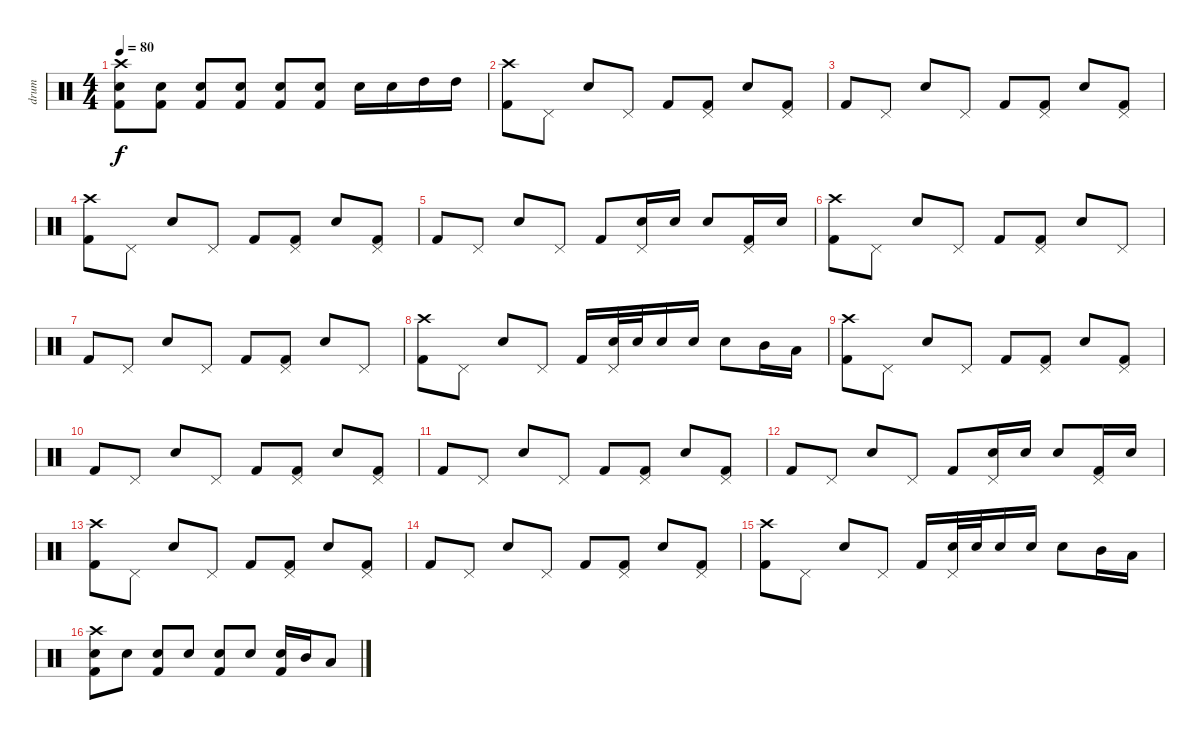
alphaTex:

\track ("drum" "drum") {instrument percussion}
\staff {score}
\articulation defaults
\ts (4 4)
\tempo 80
\clef neutral
\ks c
("Crash high (hit)" "Snare (hit)" "Kick (hit) 2").8{dy f} ("Snare (hit)" "Kick (hit) 2").8 ("Snare (hit)" "Kick (hit) 2").8 ("Snare (hit)" "Kick (hit) 2").8 ("Snare (hit)" "Kick (hit) 2").8 ("Snare (hit)" "Kick (hit) 2").8 "Snare (hit) 2".16 "Snare (hit) 2".16 "High Tom (hit)".16 "High Tom (hit)".16 |
("Crash high (hit)" "Kick (hit) 2").8 "Pedal Hi-Hat (hit)".8 "Snare (hit) 2".8 "Pedal Hi-Hat (hit)".8 "Kick (hit) 2".8 ("Pedal Hi-Hat (hit)" "Kick (hit) 2").8 "Snare (hit) 2".8 ("Pedal Hi-Hat (hit)" "Kick (hit) 2").8 |
"Kick (hit) 2".8 "Pedal Hi-Hat (hit)".8 "Snare (hit) 2".8 "Pedal Hi-Hat (hit)".8 "Kick (hit) 2".8 ("Pedal Hi-Hat (hit)" "Kick (hit) 2").8 "Snare (hit) 2".8 ("Pedal Hi-Hat (hit)" "Kick (hit) 2").8 |
("Crash high (hit)" "Kick (hit) 2").8 "Pedal Hi-Hat (hit)".8 "Snare (hit) 2".8 "Pedal Hi-Hat (hit)".8 "Kick (hit) 2".8 ("Pedal Hi-Hat (hit)" "Kick (hit) 2").8 "Snare (hit) 2".8 ("Pedal Hi-Hat (hit)" "Kick (hit) 2").8 |
"Kick (hit) 2".8 "Pedal Hi-Hat (hit)".8 "Snare (hit) 2".8 "Pedal Hi-Hat (hit)".8 "Kick (hit) 2".8 ("Pedal Hi-Hat (hit)" "Snare (hit) 2").16 "Snare (hit) 2".16 "Snare (hit) 2".8 ("Pedal Hi-Hat (hit)" "Kick (hit) 2").16 "Snare (hit) 2".16 |
("Crash high (hit)" "Kick (hit) 2").8 "Pedal Hi-Hat (hit)".8 "Snare (hit) 2".8 "Pedal Hi-Hat (hit)".8 "Kick (hit) 2".8 ("Pedal Hi-Hat (hit)" "Kick (hit) 2").8 "Snare (hit) 2".8 "Pedal Hi-Hat (hit)".8 |
"Kick (hit) 2".8 "Pedal Hi-Hat (hit)".8 "Snare (hit) 2".8 "Pedal Hi-Hat (hit)".8 "Kick (hit) 2".8 ("Pedal Hi-Hat (hit)" "Kick (hit) 2").8 "Snare (hit) 2".8 "Pedal Hi-Hat (hit)".8 |
("Crash high (hit)" "Kick (hit) 2").8 "Pedal Hi-Hat (hit)".8 "Snare (hit) 2".8 "Pedal Hi-Hat (hit)".8 "Kick (hit) 2".16 ("Pedal Hi-Hat (hit)" "Snare (hit) 2").32 "Snare (hit) 2".32 "Snare (hit) 2".16 "Snare (hit) 2".16 "Snare (hit) 2".8 "Mid Tom (hit)".16 "Low Tom (hit)".16 |
("Crash high (hit)" "Kick (hit) 2").8 "Pedal Hi-Hat (hit)".8 "Snare (hit) 2".8 "Pedal Hi-Hat (hit)".8 "Kick (hit) 2".8 ("Pedal Hi-Hat (hit)" "Kick (hit) 2").8 "Snare (hit) 2".8 ("Pedal Hi-Hat (hit)" "Kick (hit) 2").8 |
"Kick (hit) 2".8 "Pedal Hi-Hat (hit)".8 "Snare (hit) 2".8 "Pedal Hi-Hat (hit)".8 "Kick (hit) 2".8 ("Pedal Hi-Hat (hit)" "Kick (hit) 2").8 "Snare (hit) 2".8 ("Pedal Hi-Hat (hit)" "Kick (hit) 2").8 |
"Kick (hit) 2".8 "Pedal Hi-Hat (hit)".8 "Snare (hit) 2".8 "Pedal Hi-Hat (hit)".8 "Kick (hit) 2".8 ("Pedal Hi-Hat (hit)" "Kick (hit) 2").8 "Snare (hit) 2".8 ("Pedal Hi-Hat (hit)" "Kick (hit) 2").8 |
"Kick (hit) 2".8 "Pedal Hi-Hat (hit)".8 "Snare (hit) 2".8 "Pedal Hi-Hat (hit)".8 "Kick (hit) 2".8 ("Pedal Hi-Hat (hit)" "Snare (hit) 2").16 "Snare (hit) 2".16 "Snare (hit) 2".8 ("Pedal Hi-Hat (hit)" "Kick (hit) 2").16 "Snare (hit) 2".16 |
("Crash high (hit)" "Kick (hit) 2").8 "Pedal Hi-Hat (hit)".8 "Snare (hit) 2".8 "Pedal Hi-Hat (hit)".8 "Kick (hit) 2".8 ("Pedal Hi-Hat (hit)" "Kick (hit) 2").8 "Snare (hit) 2".8 ("Pedal Hi-Hat (hit)" "Kick (hit) 2").8 |
"Kick (hit) 2".8 "Pedal Hi-Hat (hit)".8 "Snare (hit) 2".8 "Pedal Hi-Hat (hit)".8 "Kick (hit) 2".8 ("Pedal Hi-Hat (hit)" "Kick (hit) 2").8 "Snare (hit) 2".8 ("Pedal Hi-Hat (hit)" "Kick (hit) 2").8 |
("Crash high (hit)" "Kick (hit) 2").8 "Pedal Hi-Hat (hit)".8 "Snare (hit) 2".8 "Pedal Hi-Hat (hit)".8 "Kick (hit) 2".16 ("Pedal Hi-Hat (hit)" "Snare (hit) 2").32 "Snare (hit) 2".32 "Snare (hit) 2".16 "Snare (hit) 2".16 "Snare (hit) 2".8 "Mid Tom (hit)".16 "Low Tom (hit)".16 |
("Crash high (hit)" "Snare (hit)" "Kick (hit) 2").8 "Snare (hit)".8 ("Snare (hit)" "Kick (hit) 2").8 "Snare (hit)".8 ("Snare (hit)" "Kick (hit) 2").8 "Snare (hit)".8 ("Snare (hit) 2" "Kick (hit) 2").16 "Mid Tom (hit)".16 "Low Tom (hit)".8
